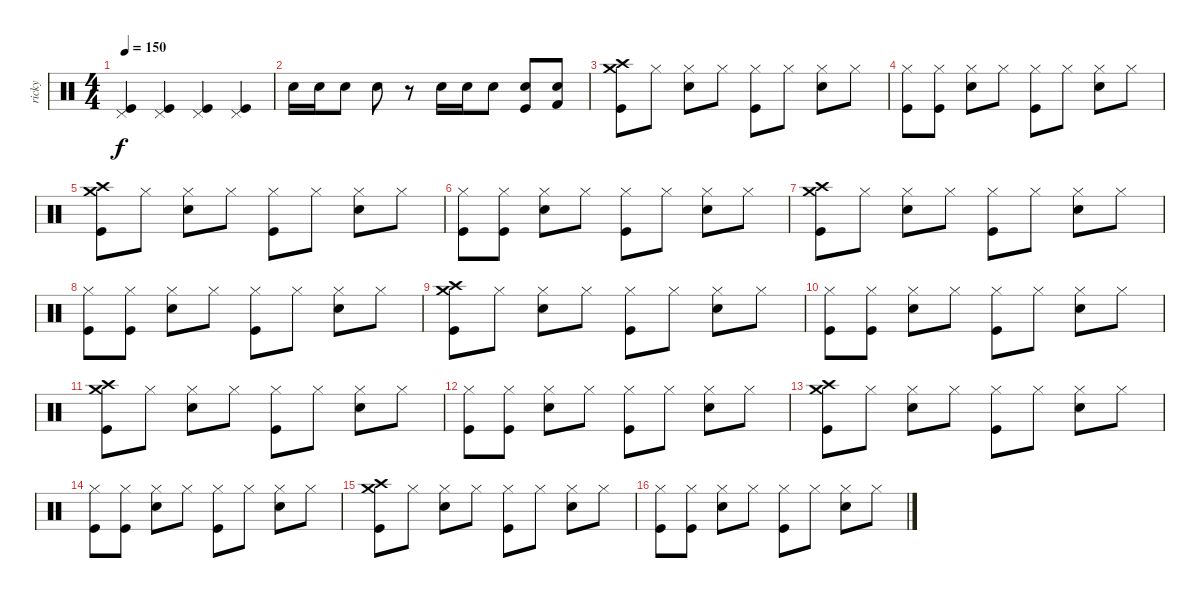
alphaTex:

\track ("ricky" "ricky") {instrument percussion}
\staff {score}
\articulation defaults
\ts (4 4)
\tempo 150
\clef neutral
\ks c
("Pedal Hi-Hat (hit)" "Kick (hit)").4{dy f} ("Pedal Hi-Hat (hit)" "Kick (hit)").4 ("Pedal Hi-Hat (hit)" "Kick (hit)").4 ("Pedal Hi-Hat (hit)" "Kick (hit)").4 |
"Electric Snare (hit)".16 "Electric Snare (hit)".16 "Electric Snare (hit)".8 "Electric Snare (hit)".8 r.8 "Electric Snare (hit)".16 "Electric Snare (hit)".16 "Electric Snare (hit)".8 ("Electric Snare (hit)" "Kick (hit)").8 ("Electric Snare (hit)" "Kick (hit) 2").8 |
("Crash medium (hit)" "Crash high (hit)" "Kick (hit)").8 "Hi-Hat (closed)".8 ("Hi-Hat (closed)" "Electric Snare (hit)").8 "Hi-Hat (closed)".8 ("Hi-Hat (closed)" "Kick (hit)").8 "Hi-Hat (closed)".8 ("Hi-Hat (closed)" "Electric Snare (hit)").8 "Hi-Hat (closed)".8 |
("Hi-Hat (closed)" "Kick (hit)").8 ("Hi-Hat (closed)" "Kick (hit)").8 ("Hi-Hat (closed)" "Electric Snare (hit)").8 "Hi-Hat (closed)".8 ("Hi-Hat (closed)" "Kick (hit)").8 "Hi-Hat (closed)".8 ("Hi-Hat (closed)" "Electric Snare (hit)").8 "Hi-Hat (closed)".8 |
("Crash medium (hit)" "Crash high (hit)" "Kick (hit)").8 "Hi-Hat (closed)".8 ("Hi-Hat (closed)" "Electric Snare (hit)").8 "Hi-Hat (closed)".8 ("Hi-Hat (closed)" "Kick (hit)").8 "Hi-Hat (closed)".8 ("Hi-Hat (closed)" "Electric Snare (hit)").8 "Hi-Hat (closed)".8 |
("Hi-Hat (closed)" "Kick (hit)").8 ("Hi-Hat (closed)" "Kick (hit)").8 ("Hi-Hat (closed)" "Electric Snare (hit)").8 "Hi-Hat (closed)".8 ("Hi-Hat (closed)" "Kick (hit)").8 "Hi-Hat (closed)".8 ("Hi-Hat (closed)" "Electric Snare (hit)").8 "Hi-Hat (closed)".8 |
("Crash medium (hit)" "Crash high (hit)" "Kick (hit)").8 "Hi-Hat (closed)".8 ("Hi-Hat (closed)" "Electric Snare (hit)").8 "Hi-Hat (closed)".8 ("Hi-Hat (closed)" "Kick (hit)").8 "Hi-Hat (closed)".8 ("Hi-Hat (closed)" "Electric Snare (hit)").8 "Hi-Hat (closed)".8 |
("Hi-Hat (closed)" "Kick (hit)").8 ("Hi-Hat (closed)" "Kick (hit)").8 ("Hi-Hat (closed)" "Electric Snare (hit)").8 "Hi-Hat (closed)".8 ("Hi-Hat (closed)" "Kick (hit)").8 "Hi-Hat (closed)".8 ("Hi-Hat (closed)" "Electric Snare (hit)").8 "Hi-Hat (closed)".8 |
("Crash medium (hit)" "Crash high (hit)" "Kick (hit)").8 "Hi-Hat (closed)".8 ("Hi-Hat (closed)" "Electric Snare (hit)").8 "Hi-Hat (closed)".8 ("Hi-Hat (closed)" "Kick (hit)").8 "Hi-Hat (closed)".8 ("Hi-Hat (closed)" "Electric Snare (hit)").8 "Hi-Hat (closed)".8 |
("Hi-Hat (closed)" "Kick (hit)").8 ("Hi-Hat (closed)" "Kick (hit)").8 ("Hi-Hat (closed)" "Electric Snare (hit)").8 "Hi-Hat (closed)".8 ("Hi-Hat (closed)" "Kick (hit)").8 "Hi-Hat (closed)".8 ("Hi-Hat (closed)" "Electric Snare (hit)").8 "Hi-Hat (closed)".8 |
("Crash medium (hit)" "Crash high (hit)" "Kick (hit)").8 "Hi-Hat (closed)".8 ("Hi-Hat (closed)" "Electric Snare (hit)").8 "Hi-Hat (closed)".8 ("Hi-Hat (closed)" "Kick (hit)").8 "Hi-Hat (closed)".8 ("Hi-Hat (closed)" "Electric Snare (hit)").8 "Hi-Hat (closed)".8 |
("Hi-Hat (closed)" "Kick (hit)").8 ("Hi-Hat (closed)" "Kick (hit)").8 ("Hi-Hat (closed)" "Electric Snare (hit)").8 "Hi-Hat (closed)".8 ("Hi-Hat (closed)" "Kick (hit)").8 "Hi-Hat (closed)".8 ("Hi-Hat (closed)" "Electric Snare (hit)").8 "Hi-Hat (closed)".8 |
("Crash medium (hit)" "Crash high (hit)" "Kick (hit)").8 "Hi-Hat (closed)".8 ("Hi-Hat (closed)" "Electric Snare (hit)").8 "Hi-Hat (closed)".8 ("Hi-Hat (closed)" "Kick (hit)").8 "Hi-Hat (closed)".8 ("Hi-Hat (closed)" "Electric Snare (hit)").8 "Hi-Hat (closed)".8 |
("Hi-Hat (closed)" "Kick (hit)").8 ("Hi-Hat (closed)" "Kick (hit)").8 ("Hi-Hat (closed)" "Electric Snare (hit)").8 "Hi-Hat (closed)".8 ("Hi-Hat (closed)" "Kick (hit)").8 "Hi-Hat (closed)".8 ("Hi-Hat (closed)" "Electric Snare (hit)").8 "Hi-Hat (closed)".8 |
("Crash medium (hit)" "Crash high (hit)" "Kick (hit)").8 "Hi-Hat (closed)".8 ("Hi-Hat (closed)" "Electric Snare (hit)").8 "Hi-Hat (closed)".8 ("Hi-Hat (closed)" "Kick (hit)").8 "Hi-Hat (closed)".8 ("Hi-Hat (closed)" "Electric Snare (hit)").8 "Hi-Hat (closed)".8 |
("Hi-Hat (closed)" "Kick (hit)").8 ("Hi-Hat (closed)" "Kick (hit)").8 ("Hi-Hat (closed)" "Electric Snare (hit)").8 "Hi-Hat (closed)".8 ("Hi-Hat (closed)" "Kick (hit)").8 "Hi-Hat (closed)".8 ("Hi-Hat (closed)" "Electric Snare (hit)").8 "Hi-Hat (closed)".8
